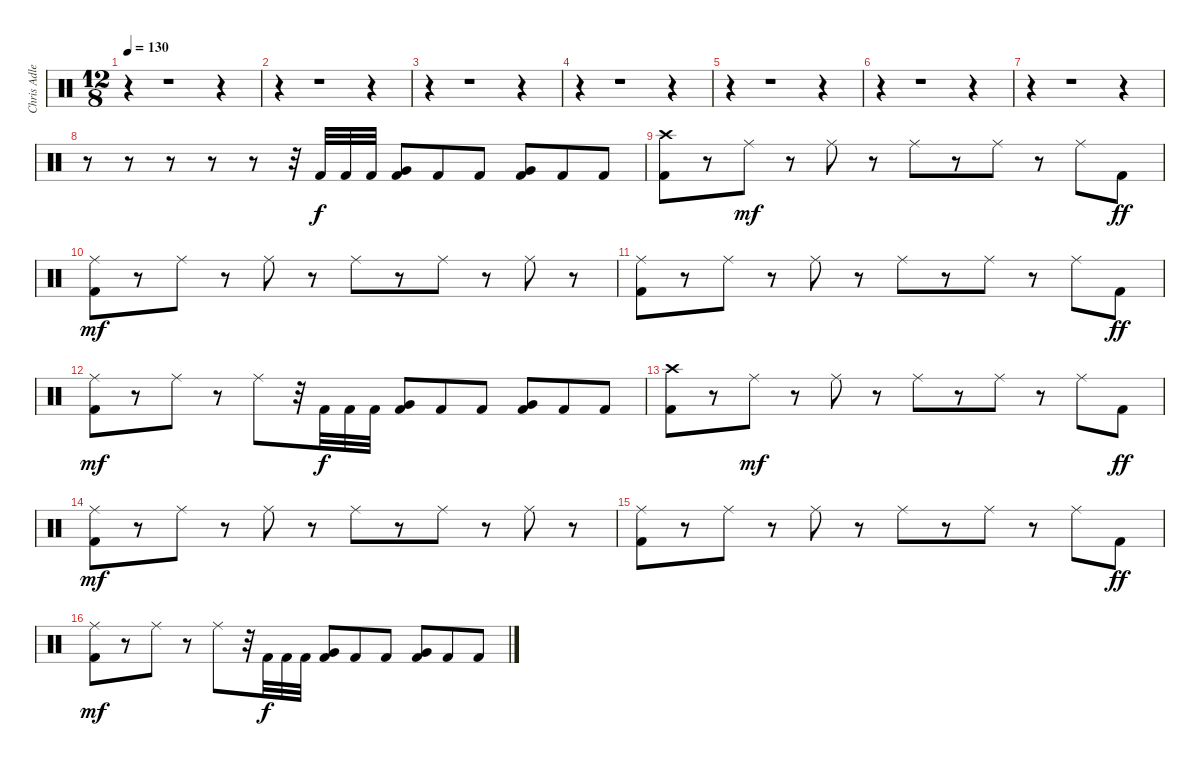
\track ("Chris Adler - Drums" "Chris Adle") {instrument percussion}
\staff {score}
\articulation defaults
\ts (12 8)
\tempo 130
\clef neutral
\ks c
r.4{dy f} r.1 r.4 |
r.4 r.1 r.4 |
r.4 r.1 r.4 |
r.4 r.1 r.4 |
r.4 r.1 r.4 |
r.4 r.1 r.4 |
r.4 r.1 r.4 |
r.8 r.8 r.8 r.8 r.8 r.32 "Kick (hit) 2".32 "Kick (hit) 2".32 "Kick (hit) 2".32 ("Very Low Tom (hit)" "Kick (hit) 2").8 "Kick (hit) 2".8 "Kick (hit) 2".8 ("Very Low Tom (hit)" "Kick (hit) 2").8 "Kick (hit) 2".8 "Kick (hit) 2".8 |
("Crash high (hit)" "Kick (hit) 2").8 r.8 "Ride (middle)".8{dy mf} r.8 "Ride (middle)".8 r.8 "Ride (middle)".8 r.8 "Ride (middle)".8 r.8 "Ride (middle)".8 "Kick (hit) 2".8{dy ff} |
("Ride (middle)" "Kick (hit) 2").8{dy mf} r.8 "Ride (middle)".8 r.8 "Ride (middle)".8 r.8 "Ride (middle)".8 r.8 "Ride (middle)".8 r.8 "Ride (middle)".8 r.8 |
("Ride (middle)" "Kick (hit) 2").8 r.8 "Ride (middle)".8 r.8 "Ride (middle)".8 r.8 "Ride (middle)".8 r.8 "Ride (middle)".8 r.8 "Ride (middle)".8 "Kick (hit) 2".8{dy ff} |
("Ride (middle)" "Kick (hit) 2").8{dy mf} r.8 "Ride (middle)".8 r.8 "Ride (middle)".8 r.32 "Kick (hit) 2".32{dy f} "Kick (hit) 2".32 "Kick (hit) 2".32 ("Very Low Tom (hit)" "Kick (hit) 2").8 "Kick (hit) 2".8 "Kick (hit) 2".8 ("Very Low Tom (hit)" "Kick (hit) 2").8 "Kick (hit) 2".8 "Kick (hit) 2".8 |
("Crash high (hit)" "Kick (hit) 2").8 r.8 "Ride (middle)".8{dy mf} r.8 "Ride (middle)".8 r.8 "Ride (middle)".8 r.8 "Ride (middle)".8 r.8 "Ride (middle)".8 "Kick (hit) 2".8{dy ff} |
("Ride (middle)" "Kick (hit) 2").8{dy mf} r.8 "Ride (middle)".8 r.8 "Ride (middle)".8 r.8 "Ride (middle)".8 r.8 "Ride (middle)".8 r.8 "Ride (middle)".8 r.8 |
("Ride (middle)" "Kick (hit) 2").8 r.8 "Ride (middle)".8 r.8 "Ride (middle)".8 r.8 "Ride (middle)".8 r.8 "Ride (middle)".8 r.8 "Ride (middle)".8 "Kick (hit) 2".8{dy ff} |
("Ride (middle)" "Kick (hit) 2").8{dy mf} r.8 "Ride (middle)".8 r.8 "Ride (middle)".8 r.32 "Kick (hit) 2".32{dy f} "Kick (hit) 2".32 "Kick (hit) 2".32 ("Very Low Tom (hit)" "Kick (hit) 2").8 "Kick (hit) 2".8 "Kick (hit) 2".8 ("Very Low Tom (hit)" "Kick (hit) 2").8 "Kick (hit) 2".8 "Kick (hit) 2".8
